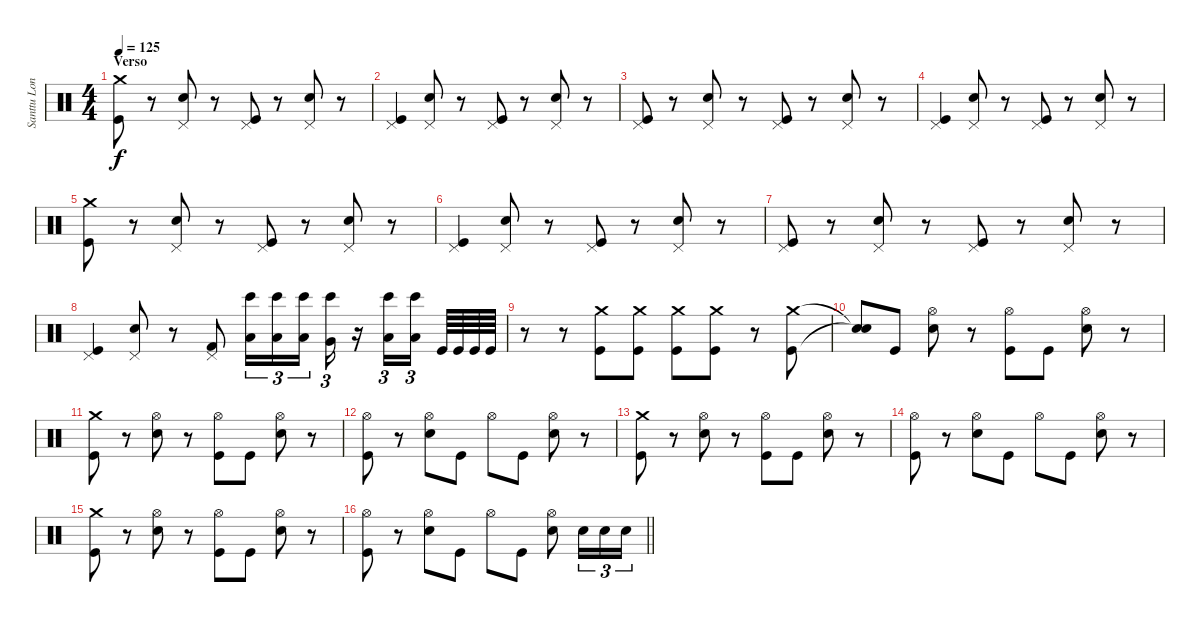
\track ("Santtu Lonka" "Santtu Lon") {instrument percussion}
\staff {score}
\articulation defaults
\ts (4 4)
\section ("" "Verso")
\tempo 125
\clef neutral
\ks c
("Crash medium (hit)" "Kick (hit)").8{dy f} r.8 ("Pedal Hi-Hat (hit)" "Electric Snare (hit)").8 r.8 ("Pedal Hi-Hat (hit)" "Kick (hit)").8 r.8 ("Pedal Hi-Hat (hit)" "Electric Snare (hit)").8 r.8 |
("Pedal Hi-Hat (hit)" "Kick (hit)").4 ("Pedal Hi-Hat (hit)" "Electric Snare (hit)").8 r.8 ("Pedal Hi-Hat (hit)" "Kick (hit)").8 r.8 ("Pedal Hi-Hat (hit)" "Electric Snare (hit)").8 r.8 |
("Pedal Hi-Hat (hit)" "Kick (hit)").8 r.8 ("Pedal Hi-Hat (hit)" "Electric Snare (hit)").8 r.8 ("Pedal Hi-Hat (hit)" "Kick (hit)").8 r.8 ("Pedal Hi-Hat (hit)" "Electric Snare (hit)").8 r.8 |
("Pedal Hi-Hat (hit)" "Kick (hit)").4 ("Pedal Hi-Hat (hit)" "Electric Snare (hit)").8 r.8 ("Pedal Hi-Hat (hit)" "Kick (hit)").8 r.8 ("Pedal Hi-Hat (hit)" "Electric Snare (hit)").8 r.8 |
("Crash medium (hit)" "Kick (hit)").8 r.8 ("Pedal Hi-Hat (hit)" "Electric Snare (hit)").8 r.8 ("Pedal Hi-Hat (hit)" "Kick (hit)").8 r.8 ("Pedal Hi-Hat (hit)" "Electric Snare (hit)").8 r.8 |
("Pedal Hi-Hat (hit)" "Kick (hit)").4 ("Pedal Hi-Hat (hit)" "Electric Snare (hit)").8 r.8 ("Pedal Hi-Hat (hit)" "Kick (hit)").8 r.8 ("Pedal Hi-Hat (hit)" "Electric Snare (hit)").8 r.8 |
("Pedal Hi-Hat (hit)" "Kick (hit)").8 r.8 ("Pedal Hi-Hat (hit)" "Electric Snare (hit)").8 r.8 ("Pedal Hi-Hat (hit)" "Kick (hit)").8 r.8 ("Pedal Hi-Hat (hit)" "Electric Snare (hit)").8 r.8 |
("Pedal Hi-Hat (hit)" "Kick (hit)").4 ("Pedal Hi-Hat (hit)" "Electric Snare (hit)").8 r.8 ("Pedal Hi-Hat (hit)" "Kick (hit) 2").8 ("Low Tom (hit)" "Bongo High (hit)").16{tu (3 2)} ("Low Tom (hit)" "Bongo High (hit)").16{tu (3 2)} ("Low Tom (hit)" "Bongo High (hit)").16{tu (3 2)} ("Very Low Tom (hit)" "Bongo High (hit)").16{tu (3 2)} r.16 ("Low Tom (hit)" "Bongo High (hit)").16{tu (3 2)} ("Low Tom (hit)" "Bongo High (hit)").16{tu (3 2) beam splitsecondary} "Kick (hit)".64 "Kick (hit)".64 "Kick (hit)".64 "Kick (hit)".64 |
r.8 r.8 ("Crash medium (hit)" "Kick (hit)").8 ("Crash medium (hit)" "Kick (hit)").8 ("Crash medium (hit)" "Kick (hit)").8 ("Crash medium (hit)" "Kick (hit)").8 r.8 ("Crash medium (hit)" "Kick (hit)").8 |
("Snare (hit)"{t} "Snare (hit)"{t}).8 "Kick (hit)".8 ("Hi-Hat (open)" "Electric Snare (hit)").8 r.8 ("Hi-Hat (open)" "Kick (hit)").8 "Kick (hit)".8 ("Hi-Hat (open)" "Electric Snare (hit)").8 r.8 |
("Crash medium (hit)" "Kick (hit)").8 r.8 ("Hi-Hat (open)" "Electric Snare (hit)").8 r.8 ("Hi-Hat (open)" "Kick (hit)").8 "Kick (hit)".8 ("Hi-Hat (open)" "Electric Snare (hit)").8 r.8 |
("Hi-Hat (open)" "Kick (hit)").8 r.8 ("Hi-Hat (open)" "Electric Snare (hit)").8 "Kick (hit)".8 "Hi-Hat (open)".8 "Kick (hit)".8 ("Hi-Hat (open)" "Electric Snare (hit)").8 r.8 |
("Crash medium (hit)" "Kick (hit)").8 r.8 ("Hi-Hat (open)" "Electric Snare (hit)").8 r.8 ("Hi-Hat (open)" "Kick (hit)").8 "Kick (hit)".8 ("Hi-Hat (open)" "Electric Snare (hit)").8 r.8 |
("Hi-Hat (open)" "Kick (hit)").8 r.8 ("Hi-Hat (open)" "Electric Snare (hit)").8 "Kick (hit)".8 "Hi-Hat (open)".8 "Kick (hit)".8 ("Hi-Hat (open)" "Electric Snare (hit)").8 r.8 |
("Crash medium (hit)" "Kick (hit)").8 r.8 ("Hi-Hat (open)" "Electric Snare (hit)").8 r.8 ("Hi-Hat (open)" "Kick (hit)").8 "Kick (hit)".8 ("Hi-Hat (open)" "Electric Snare (hit)").8 r.8 |
\barLineRight lightlight
("Hi-Hat (open)" "Kick (hit)").8 r.8 ("Hi-Hat (open)" "Electric Snare (hit)").8 "Kick (hit)".8 "Hi-Hat (open)".8 "Kick (hit)".8 ("Hi-Hat (open)" "Electric Snare (hit)").8 "Electric Snare (hit)".16{tu (3 2)} "Electric Snare (hit)".16{tu (3 2)} "Electric Snare (hit)".16{tu (3 2)}
